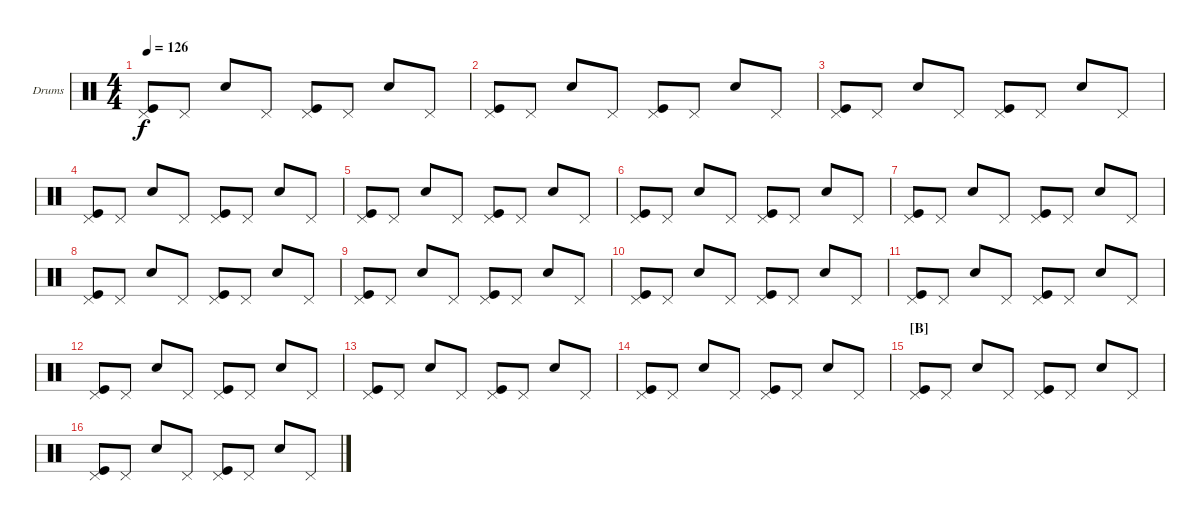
\defaultSystemsLayout 4
\bracketExtendMode groupsimilarinstruments
\firstSystemTrackNameOrientation horizontal
\otherSystemsTrackNameOrientation horizontal
\track ("Е. Кулаков" "Drums") {instrument percussion}
\staff {score}
\articulation defaults
\ts (4 4)
\tempo 126
\clef neutral
\ks c
("Kick (hit)" "Pedal Hi-Hat (hit)").8{dy f} "Pedal Hi-Hat (hit)".8 "Snare (hit) 2".8 "Pedal Hi-Hat (hit)".8 ("Kick (hit)" "Pedal Hi-Hat (hit)").8 "Pedal Hi-Hat (hit)".8 "Snare (hit) 2".8 "Pedal Hi-Hat (hit)".8 |
("Kick (hit)" "Pedal Hi-Hat (hit)").8 "Pedal Hi-Hat (hit)".8 "Snare (hit) 2".8 "Pedal Hi-Hat (hit)".8 ("Kick (hit)" "Pedal Hi-Hat (hit)").8 "Pedal Hi-Hat (hit)".8 "Snare (hit) 2".8 "Pedal Hi-Hat (hit)".8 |
("Kick (hit)" "Pedal Hi-Hat (hit)").8 "Pedal Hi-Hat (hit)".8 "Snare (hit) 2".8 "Pedal Hi-Hat (hit)".8 ("Kick (hit)" "Pedal Hi-Hat (hit)").8 "Pedal Hi-Hat (hit)".8 "Snare (hit) 2".8 "Pedal Hi-Hat (hit)".8 |
("Kick (hit)" "Pedal Hi-Hat (hit)").8 "Pedal Hi-Hat (hit)".8 "Snare (hit) 2".8 "Pedal Hi-Hat (hit)".8 ("Kick (hit)" "Pedal Hi-Hat (hit)").8 "Pedal Hi-Hat (hit)".8 "Snare (hit) 2".8 "Pedal Hi-Hat (hit)".8 |
("Kick (hit)" "Pedal Hi-Hat (hit)").8 "Pedal Hi-Hat (hit)".8 "Snare (hit) 2".8 "Pedal Hi-Hat (hit)".8 ("Kick (hit)" "Pedal Hi-Hat (hit)").8 "Pedal Hi-Hat (hit)".8 "Snare (hit) 2".8 "Pedal Hi-Hat (hit)".8 |
("Kick (hit)" "Pedal Hi-Hat (hit)").8 "Pedal Hi-Hat (hit)".8 "Snare (hit) 2".8 "Pedal Hi-Hat (hit)".8 ("Kick (hit)" "Pedal Hi-Hat (hit)").8 "Pedal Hi-Hat (hit)".8 "Snare (hit) 2".8 "Pedal Hi-Hat (hit)".8 |
("Kick (hit)" "Pedal Hi-Hat (hit)").8 "Pedal Hi-Hat (hit)".8 "Snare (hit) 2".8 "Pedal Hi-Hat (hit)".8 ("Kick (hit)" "Pedal Hi-Hat (hit)").8 "Pedal Hi-Hat (hit)".8 "Snare (hit) 2".8 "Pedal Hi-Hat (hit)".8 |
("Kick (hit)" "Pedal Hi-Hat (hit)").8 "Pedal Hi-Hat (hit)".8 "Snare (hit) 2".8 "Pedal Hi-Hat (hit)".8 ("Kick (hit)" "Pedal Hi-Hat (hit)").8 "Pedal Hi-Hat (hit)".8 "Snare (hit) 2".8 "Pedal Hi-Hat (hit)".8 |
("Kick (hit)" "Pedal Hi-Hat (hit)").8 "Pedal Hi-Hat (hit)".8 "Snare (hit) 2".8 "Pedal Hi-Hat (hit)".8 ("Kick (hit)" "Pedal Hi-Hat (hit)").8 "Pedal Hi-Hat (hit)".8 "Snare (hit) 2".8 "Pedal Hi-Hat (hit)".8 |
("Kick (hit)" "Pedal Hi-Hat (hit)").8 "Pedal Hi-Hat (hit)".8 "Snare (hit) 2".8 "Pedal Hi-Hat (hit)".8 ("Kick (hit)" "Pedal Hi-Hat (hit)").8 "Pedal Hi-Hat (hit)".8 "Snare (hit) 2".8 "Pedal Hi-Hat (hit)".8 |
("Kick (hit)" "Pedal Hi-Hat (hit)").8 "Pedal Hi-Hat (hit)".8 "Snare (hit) 2".8 "Pedal Hi-Hat (hit)".8 ("Kick (hit)" "Pedal Hi-Hat (hit)").8 "Pedal Hi-Hat (hit)".8 "Snare (hit) 2".8 "Pedal Hi-Hat (hit)".8 |
("Kick (hit)" "Pedal Hi-Hat (hit)").8 "Pedal Hi-Hat (hit)".8 "Snare (hit) 2".8 "Pedal Hi-Hat (hit)".8 ("Kick (hit)" "Pedal Hi-Hat (hit)").8 "Pedal Hi-Hat (hit)".8 "Snare (hit) 2".8 "Pedal Hi-Hat (hit)".8 |
("Kick (hit)" "Pedal Hi-Hat (hit)").8 "Pedal Hi-Hat (hit)".8 "Snare (hit) 2".8 "Pedal Hi-Hat (hit)".8 ("Kick (hit)" "Pedal Hi-Hat (hit)").8 "Pedal Hi-Hat (hit)".8 "Snare (hit) 2".8 "Pedal Hi-Hat (hit)".8 |
("Kick (hit)" "Pedal Hi-Hat (hit)").8 "Pedal Hi-Hat (hit)".8 "Snare (hit) 2".8 "Pedal Hi-Hat (hit)".8 ("Kick (hit)" "Pedal Hi-Hat (hit)").8 "Pedal Hi-Hat (hit)".8 "Snare (hit) 2".8 "Pedal Hi-Hat (hit)".8 |
\section ("B" "")
("Kick (hit)" "Pedal Hi-Hat (hit)").8 "Pedal Hi-Hat (hit)".8 "Snare (hit) 2".8 "Pedal Hi-Hat (hit)".8 ("Kick (hit)" "Pedal Hi-Hat (hit)").8 "Pedal Hi-Hat (hit)".8 "Snare (hit) 2".8 "Pedal Hi-Hat (hit)".8 |
("Kick (hit)" "Pedal Hi-Hat (hit)").8 "Pedal Hi-Hat (hit)".8 "Snare (hit) 2".8 "Pedal Hi-Hat (hit)".8 ("Kick (hit)" "Pedal Hi-Hat (hit)").8 "Pedal Hi-Hat (hit)".8 "Snare (hit) 2".8 "Pedal Hi-Hat (hit)".8
